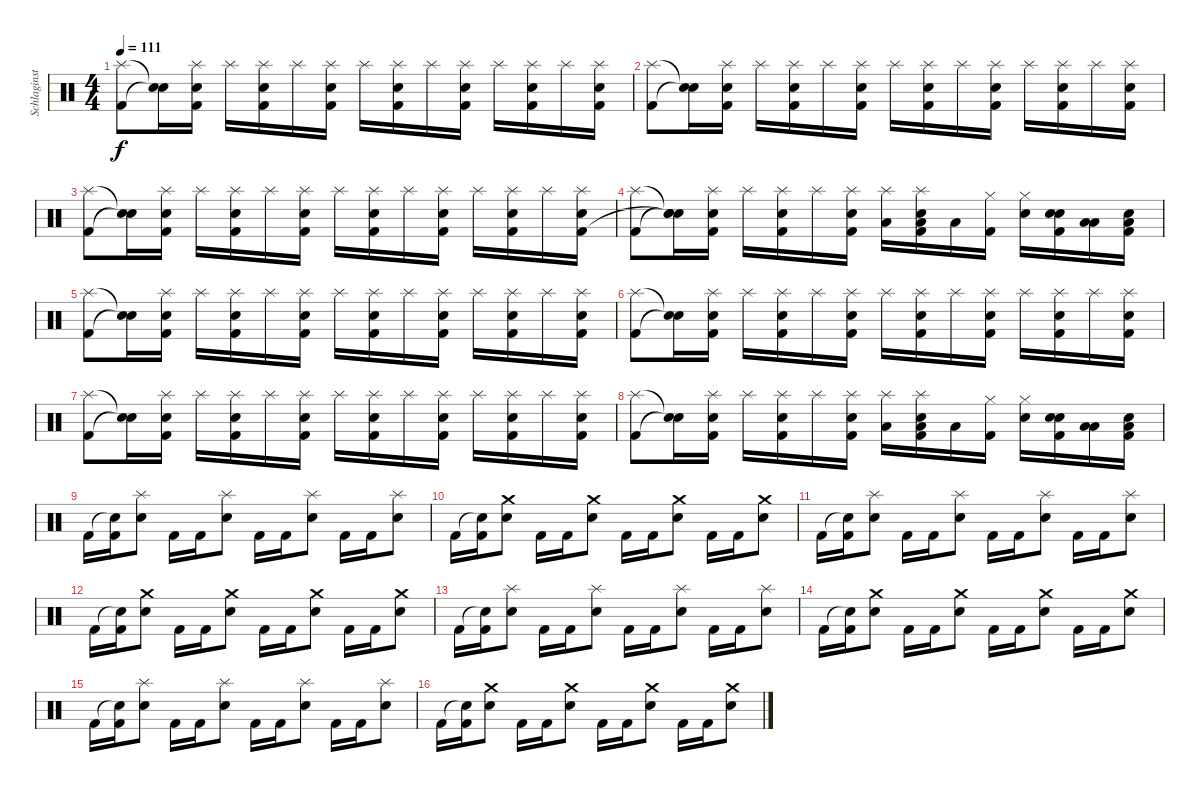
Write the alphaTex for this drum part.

\track ("Schlaginstrumente - Auswahl" "Schlaginst") {instrument percussion}
\staff {score}
\articulation defaults
\ts (4 4)
\tempo 111
\clef neutral
\ks c
("Splash (hit)" "Kick (hit) 2").8{dy f} ("Snare (hit)"{t} "Snare (hit)"{t}).16 ("Splash (hit)" "Electric Snare (hit)" "Kick (hit) 2").16 "Splash (hit)".16 ("Splash (hit)" "Electric Snare (hit)" "Kick (hit) 2").16 "Splash (hit)".16 ("Splash (hit)" "Electric Snare (hit)" "Kick (hit) 2").16 "Splash (hit)".16 ("Splash (hit)" "Electric Snare (hit)" "Kick (hit) 2").16 "Splash (hit)".16 ("Splash (hit)" "Electric Snare (hit)" "Kick (hit) 2").16 "Splash (hit)".16 ("Splash (hit)" "Electric Snare (hit)" "Kick (hit) 2").16 "Splash (hit)".16 ("Splash (hit)" "Electric Snare (hit)" "Kick (hit) 2").16 |
("Splash (hit)" "Kick (hit) 2").8 ("Snare (hit)"{t} "Snare (hit)"{t}).16 ("Splash (hit)" "Electric Snare (hit)" "Kick (hit) 2").16 "Splash (hit)".16 ("Splash (hit)" "Electric Snare (hit)" "Kick (hit) 2").16 "Splash (hit)".16 ("Splash (hit)" "Electric Snare (hit)" "Kick (hit) 2").16 "Splash (hit)".16 ("Splash (hit)" "Electric Snare (hit)" "Kick (hit) 2").16 "Splash (hit)".16 ("Splash (hit)" "Electric Snare (hit)" "Kick (hit) 2").16 "Splash (hit)".16 ("Splash (hit)" "Electric Snare (hit)" "Kick (hit) 2").16 "Splash (hit)".16 ("Splash (hit)" "Electric Snare (hit)" "Kick (hit) 2").16 |
("Splash (hit)" "Kick (hit) 2").8 ("Snare (hit)"{t} "Snare (hit)"{t}).16 ("Splash (hit)" "Electric Snare (hit)" "Kick (hit) 2").16 "Splash (hit)".16 ("Splash (hit)" "Electric Snare (hit)" "Kick (hit) 2").16 "Splash (hit)".16 ("Splash (hit)" "Electric Snare (hit)" "Kick (hit) 2").16 "Splash (hit)".16 ("Splash (hit)" "Electric Snare (hit)" "Kick (hit) 2").16 "Splash (hit)".16 ("Splash (hit)" "Electric Snare (hit)" "Kick (hit) 2").16 "Splash (hit)".16 ("Splash (hit)" "Electric Snare (hit)" "Kick (hit) 2").16 "Splash (hit)".16 ("Splash (hit)" "Electric Snare (hit)" "Kick (hit) 2").16 |
("Splash (hit)" "Kick (hit) 2").8 ("Snare (hit)"{t} "Snare (hit)"{t} "Snare (hit)"{t}).16 ("Splash (hit)" "Electric Snare (hit)" "Kick (hit) 2").16 "Splash (hit)".16 ("Splash (hit)" "Electric Snare (hit)" "Kick (hit) 2").16 "Splash (hit)".16 ("Splash (hit)" "Electric Snare (hit)" "Kick (hit) 2").16 ("Low Floor Tom (hit)" "Splash (hit)").16 ("Low Floor Tom (hit)" "Splash (hit)" "Electric Snare (hit)" "Kick (hit) 2").16 "Low Floor Tom (hit)".16 ("Hi-Hat (closed)" "Kick (hit) 2").16 ("Hi-Hat (closed)" "Electric Snare (hit)").16 ("Electric Snare (hit)" "Electric Snare (hit)" "Kick (hit) 2").16 ("Low Tom (hit)" "Low Tom (hit)").16 ("Low Tom (hit)" "Electric Snare (hit)" "Kick (hit) 2").16 |
("Splash (hit)" "Kick (hit) 2").8 ("Snare (hit)"{t} "Snare (hit)"{t}).16 ("Splash (hit)" "Electric Snare (hit)" "Kick (hit) 2").16 "Splash (hit)".16 ("Splash (hit)" "Electric Snare (hit)" "Kick (hit) 2").16 "Splash (hit)".16 ("Splash (hit)" "Electric Snare (hit)" "Kick (hit) 2").16 "Splash (hit)".16 ("Splash (hit)" "Electric Snare (hit)" "Kick (hit) 2").16 "Splash (hit)".16 ("Splash (hit)" "Electric Snare (hit)" "Kick (hit) 2").16 "Splash (hit)".16 ("Splash (hit)" "Electric Snare (hit)" "Kick (hit) 2").16 "Splash (hit)".16 ("Splash (hit)" "Electric Snare (hit)" "Kick (hit) 2").16 |
("Splash (hit)" "Kick (hit) 2").8 ("Snare (hit)"{t} "Snare (hit)"{t}).16 ("Splash (hit)" "Electric Snare (hit)" "Kick (hit) 2").16 "Splash (hit)".16 ("Splash (hit)" "Electric Snare (hit)" "Kick (hit) 2").16 "Splash (hit)".16 ("Splash (hit)" "Electric Snare (hit)" "Kick (hit) 2").16 "Splash (hit)".16 ("Splash (hit)" "Electric Snare (hit)" "Kick (hit) 2").16 "Splash (hit)".16 ("Splash (hit)" "Electric Snare (hit)" "Kick (hit) 2").16 "Splash (hit)".16 ("Splash (hit)" "Electric Snare (hit)" "Kick (hit) 2").16 "Splash (hit)".16 ("Splash (hit)" "Electric Snare (hit)" "Kick (hit) 2").16 |
("Splash (hit)" "Kick (hit) 2").8 ("Snare (hit)"{t} "Snare (hit)"{t}).16 ("Splash (hit)" "Electric Snare (hit)" "Kick (hit) 2").16 "Splash (hit)".16 ("Splash (hit)" "Electric Snare (hit)" "Kick (hit) 2").16 "Splash (hit)".16 ("Splash (hit)" "Electric Snare (hit)" "Kick (hit) 2").16 "Splash (hit)".16 ("Splash (hit)" "Electric Snare (hit)" "Kick (hit) 2").16 "Splash (hit)".16 ("Splash (hit)" "Electric Snare (hit)" "Kick (hit) 2").16 "Splash (hit)".16 ("Splash (hit)" "Electric Snare (hit)" "Kick (hit) 2").16 "Splash (hit)".16 ("Splash (hit)" "Electric Snare (hit)" "Kick (hit) 2").16 |
("Splash (hit)" "Kick (hit) 2").8 ("Snare (hit)"{t} "Snare (hit)"{t}).16 ("Splash (hit)" "Electric Snare (hit)" "Kick (hit) 2").16 "Splash (hit)".16 ("Splash (hit)" "Electric Snare (hit)" "Kick (hit) 2").16 "Splash (hit)".16 ("Splash (hit)" "Electric Snare (hit)" "Kick (hit) 2").16 ("Low Floor Tom (hit)" "Splash (hit)").16 ("Low Floor Tom (hit)" "Splash (hit)" "Electric Snare (hit)" "Kick (hit) 2").16 "Low Floor Tom (hit)".16 ("Hi-Hat (closed)" "Kick (hit) 2").16 ("Hi-Hat (closed)" "Electric Snare (hit)").16 ("Electric Snare (hit)" "Electric Snare (hit)" "Kick (hit) 2").16 ("Low Tom (hit)" "Low Tom (hit)").16 ("Low Tom (hit)" "Electric Snare (hit)" "Kick (hit) 2").16 |
"Kick (hit) 2".16 ("Snare (hit)"{t} "Kick (hit) 2").16 ("Electric Snare (hit)" "Splash (hit)").8 "Kick (hit) 2".16 "Kick (hit) 2".16 ("Electric Snare (hit)" "Splash (hit)").8 "Kick (hit) 2".16 "Kick (hit) 2".16 ("Electric Snare (hit)" "Splash (hit)").8 "Kick (hit) 2".16 "Kick (hit) 2".16 ("Electric Snare (hit)" "Splash (hit)").8 |
"Kick (hit) 2".16 ("Snare (hit)"{t} "Kick (hit) 2").16 ("Electric Snare (hit)" "Crash medium (hit)").8 "Kick (hit) 2".16 "Kick (hit) 2".16 ("Electric Snare (hit)" "Crash medium (hit)").8 "Kick (hit) 2".16 "Kick (hit) 2".16 ("Electric Snare (hit)" "Crash medium (hit)").8 "Kick (hit) 2".16 "Kick (hit) 2".16 ("Electric Snare (hit)" "Crash medium (hit)").8 |
"Kick (hit) 2".16 ("Snare (hit)"{t} "Kick (hit) 2").16 ("Electric Snare (hit)" "Splash (hit)").8 "Kick (hit) 2".16 "Kick (hit) 2".16 ("Electric Snare (hit)" "Splash (hit)").8 "Kick (hit) 2".16 "Kick (hit) 2".16 ("Electric Snare (hit)" "Splash (hit)").8 "Kick (hit) 2".16 "Kick (hit) 2".16 ("Electric Snare (hit)" "Splash (hit)").8 |
"Kick (hit) 2".16 ("Snare (hit)"{t} "Kick (hit) 2").16 ("Electric Snare (hit)" "Crash medium (hit)").8 "Kick (hit) 2".16 "Kick (hit) 2".16 ("Electric Snare (hit)" "Crash medium (hit)").8 "Kick (hit) 2".16 "Kick (hit) 2".16 ("Electric Snare (hit)" "Crash medium (hit)").8 "Kick (hit) 2".16 "Kick (hit) 2".16 ("Electric Snare (hit)" "Crash medium (hit)").8 |
"Kick (hit) 2".16 ("Snare (hit)"{t} "Kick (hit) 2").16 ("Electric Snare (hit)" "Splash (hit)").8 "Kick (hit) 2".16 "Kick (hit) 2".16 ("Electric Snare (hit)" "Splash (hit)").8 "Kick (hit) 2".16 "Kick (hit) 2".16 ("Electric Snare (hit)" "Splash (hit)").8 "Kick (hit) 2".16 "Kick (hit) 2".16 ("Electric Snare (hit)" "Splash (hit)").8 |
"Kick (hit) 2".16 ("Snare (hit)"{t} "Kick (hit) 2").16 ("Electric Snare (hit)" "Crash medium (hit)").8 "Kick (hit) 2".16 "Kick (hit) 2".16 ("Electric Snare (hit)" "Crash medium (hit)").8 "Kick (hit) 2".16 "Kick (hit) 2".16 ("Electric Snare (hit)" "Crash medium (hit)").8 "Kick (hit) 2".16 "Kick (hit) 2".16 ("Electric Snare (hit)" "Crash medium (hit)").8 |
"Kick (hit) 2".16 ("Snare (hit)"{t} "Kick (hit) 2").16 ("Electric Snare (hit)" "Splash (hit)").8 "Kick (hit) 2".16 "Kick (hit) 2".16 ("Electric Snare (hit)" "Splash (hit)").8 "Kick (hit) 2".16 "Kick (hit) 2".16 ("Electric Snare (hit)" "Splash (hit)").8 "Kick (hit) 2".16 "Kick (hit) 2".16 ("Electric Snare (hit)" "Splash (hit)").8 |
"Kick (hit) 2".16 ("Snare (hit)"{t} "Kick (hit) 2").16 ("Electric Snare (hit)" "Crash medium (hit)").8 "Kick (hit) 2".16 "Kick (hit) 2".16 ("Electric Snare (hit)" "Crash medium (hit)").8 "Kick (hit) 2".16 "Kick (hit) 2".16 ("Electric Snare (hit)" "Crash medium (hit)").8 "Kick (hit) 2".16 "Kick (hit) 2".16 ("Electric Snare (hit)" "Crash medium (hit)").8
